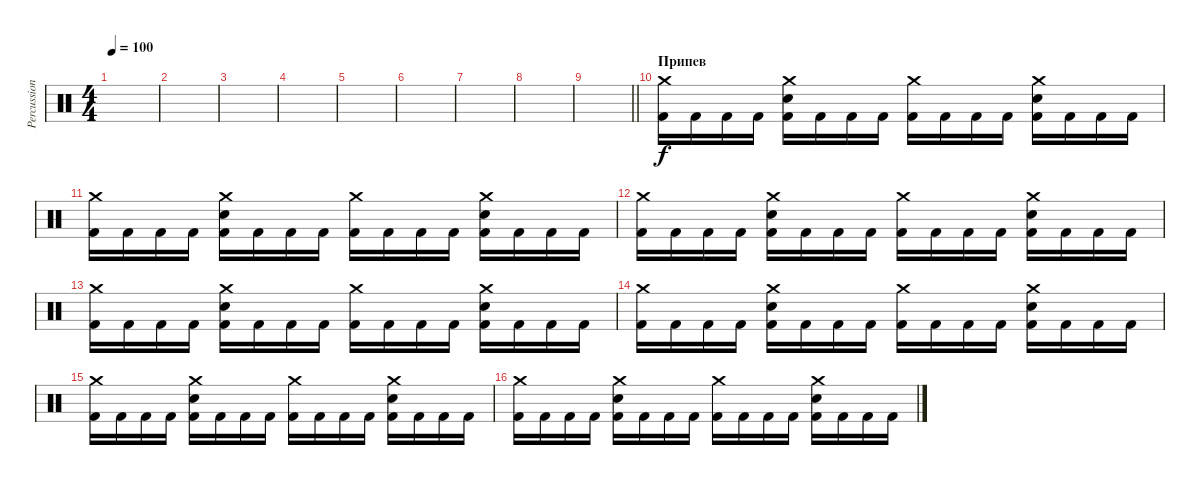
\track ("Percussion" "Percussion") {instrument percussion}
\staff {score}
\articulation defaults
\ts (4 4)
\tempo 100
\clef neutral
\ks aminor
|
|
|
|
|
|
|
|
\barLineRight lightlight
|
\section ("" "Припев")
("Crash medium (hit)" "Kick (hit) 2").16 "Kick (hit) 2".16 "Kick (hit) 2".16 "Kick (hit) 2".16 ("Crash medium (hit)" "Snare (hit) 2" "Kick (hit) 2").16 "Kick (hit) 2".16 "Kick (hit) 2".16 "Kick (hit) 2".16 ("Crash medium (hit)" "Kick (hit) 2").16 "Kick (hit) 2".16 "Kick (hit) 2".16 "Kick (hit) 2".16 ("Crash medium (hit)" "Snare (hit) 2" "Kick (hit) 2").16 "Kick (hit) 2".16 "Kick (hit) 2".16 "Kick (hit) 2".16 |
("Crash medium (hit)" "Kick (hit) 2").16 "Kick (hit) 2".16 "Kick (hit) 2".16 "Kick (hit) 2".16 ("Crash medium (hit)" "Snare (hit) 2" "Kick (hit) 2").16 "Kick (hit) 2".16 "Kick (hit) 2".16 "Kick (hit) 2".16 ("Crash medium (hit)" "Kick (hit) 2").16 "Kick (hit) 2".16 "Kick (hit) 2".16 "Kick (hit) 2".16 ("Crash medium (hit)" "Snare (hit) 2" "Kick (hit) 2").16 "Kick (hit) 2".16 "Kick (hit) 2".16 "Kick (hit) 2".16 |
("Crash medium (hit)" "Kick (hit) 2").16 "Kick (hit) 2".16 "Kick (hit) 2".16 "Kick (hit) 2".16 ("Crash medium (hit)" "Snare (hit) 2" "Kick (hit) 2").16 "Kick (hit) 2".16 "Kick (hit) 2".16 "Kick (hit) 2".16 ("Crash medium (hit)" "Kick (hit) 2").16 "Kick (hit) 2".16 "Kick (hit) 2".16 "Kick (hit) 2".16 ("Crash medium (hit)" "Snare (hit) 2" "Kick (hit) 2").16 "Kick (hit) 2".16 "Kick (hit) 2".16 "Kick (hit) 2".16 |
("Crash medium (hit)" "Kick (hit) 2").16 "Kick (hit) 2".16 "Kick (hit) 2".16 "Kick (hit) 2".16 ("Crash medium (hit)" "Snare (hit) 2" "Kick (hit) 2").16 "Kick (hit) 2".16 "Kick (hit) 2".16 "Kick (hit) 2".16 ("Crash medium (hit)" "Kick (hit) 2").16 "Kick (hit) 2".16 "Kick (hit) 2".16 "Kick (hit) 2".16 ("Crash medium (hit)" "Snare (hit) 2" "Kick (hit) 2").16 "Kick (hit) 2".16 "Kick (hit) 2".16 "Kick (hit) 2".16 |
("Crash medium (hit)" "Kick (hit) 2").16 "Kick (hit) 2".16 "Kick (hit) 2".16 "Kick (hit) 2".16 ("Crash medium (hit)" "Snare (hit) 2" "Kick (hit) 2").16 "Kick (hit) 2".16 "Kick (hit) 2".16 "Kick (hit) 2".16 ("Crash medium (hit)" "Kick (hit) 2").16 "Kick (hit) 2".16 "Kick (hit) 2".16 "Kick (hit) 2".16 ("Crash medium (hit)" "Snare (hit) 2" "Kick (hit) 2").16 "Kick (hit) 2".16 "Kick (hit) 2".16 "Kick (hit) 2".16 |
("Crash medium (hit)" "Kick (hit) 2").16 "Kick (hit) 2".16 "Kick (hit) 2".16 "Kick (hit) 2".16 ("Crash medium (hit)" "Snare (hit) 2" "Kick (hit) 2").16 "Kick (hit) 2".16 "Kick (hit) 2".16 "Kick (hit) 2".16 ("Crash medium (hit)" "Kick (hit) 2").16 "Kick (hit) 2".16 "Kick (hit) 2".16 "Kick (hit) 2".16 ("Crash medium (hit)" "Snare (hit) 2" "Kick (hit) 2").16 "Kick (hit) 2".16 "Kick (hit) 2".16 "Kick (hit) 2".16 |
("Crash medium (hit)" "Kick (hit) 2").16 "Kick (hit) 2".16 "Kick (hit) 2".16 "Kick (hit) 2".16 ("Crash medium (hit)" "Snare (hit) 2" "Kick (hit) 2").16 "Kick (hit) 2".16 "Kick (hit) 2".16 "Kick (hit) 2".16 ("Crash medium (hit)" "Kick (hit) 2").16 "Kick (hit) 2".16 "Kick (hit) 2".16 "Kick (hit) 2".16 ("Crash medium (hit)" "Snare (hit) 2" "Kick (hit) 2").16 "Kick (hit) 2".16 "Kick (hit) 2".16 "Kick (hit) 2".16
